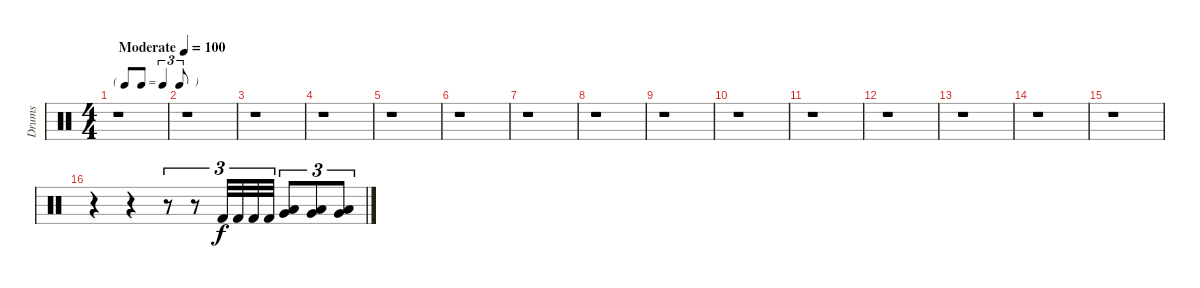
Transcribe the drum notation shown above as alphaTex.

\track ("Drums" "Drums") {instrument percussion}
\staff {score}
\articulation defaults
\ts (4 4)
\tf triplet8th
\tempo (100 "Moderate")
\clef neutral
\ks c
r.1{dy f} |
r.1 |
r.1 |
r.1 |
r.1 |
r.1 |
r.1 |
r.1 |
r.1 |
r.1 |
r.1 |
r.1 |
r.1 |
r.1 |
r.1 |
r.4 r.4 r.8{tu (3 2)} r.8{tu (3 2)} "Kick (hit) 2".32{tu (3 2)} "Kick (hit) 2".32{tu (3 2)} "Kick (hit) 2".32{tu (3 2)} "Kick (hit) 2".32{tu (3 2)} ("Low Tom (hit)" "Very Low Tom (hit)").8{tu (3 2)} ("Low Tom (hit)" "Very Low Tom (hit)").8{tu (3 2)} ("Low Tom (hit)" "Very Low Tom (hit)").8{tu (3 2)}
